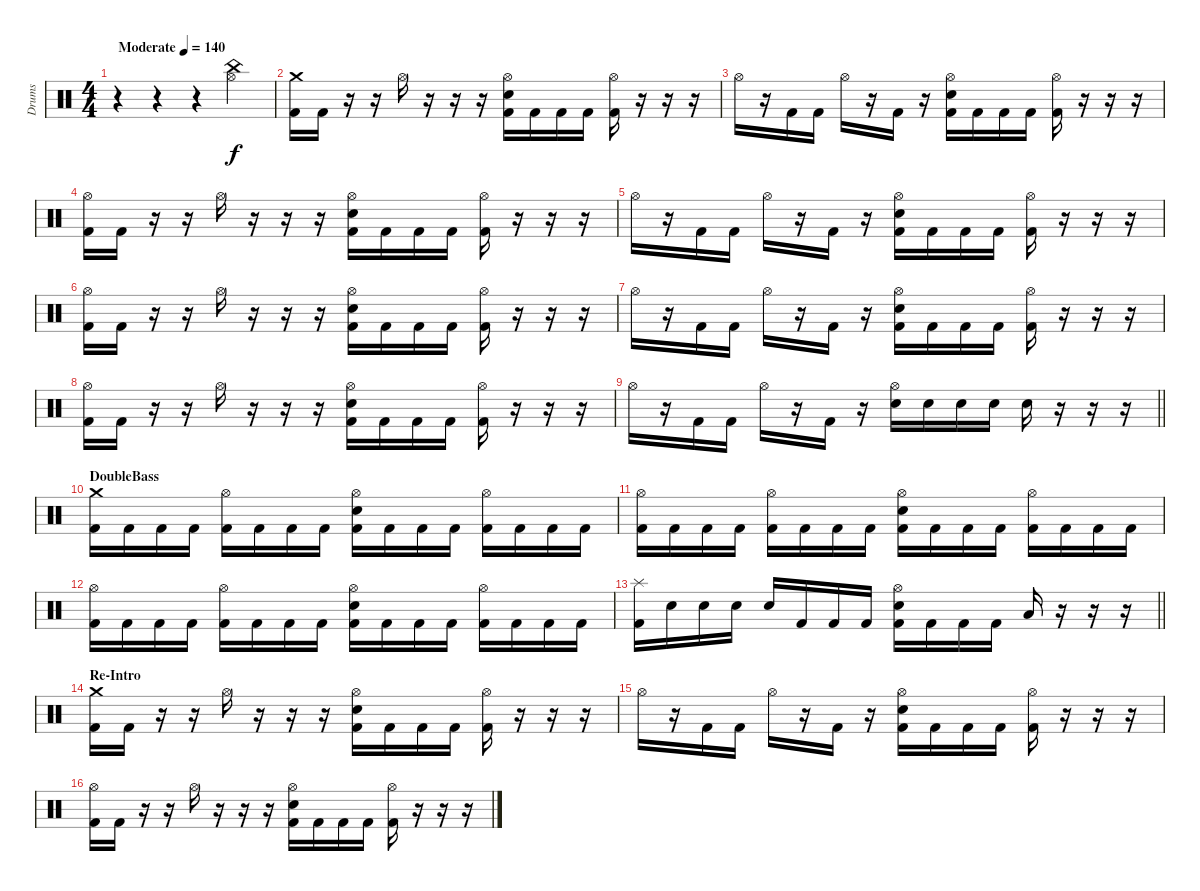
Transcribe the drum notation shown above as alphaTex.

\track ("Drums" "Drums") {instrument percussion}
\staff {score}
\articulation defaults
\ts (4 4)
\tempo (140 "Moderate")
\clef neutral
\ks c
r.4{dy f} r.4 r.4 ("China (hit)" "Hi-Hat (open)").4 |
("Crash medium (hit)" "Kick (hit) 2").16 "Kick (hit) 2".16 r.16 r.16 "Hi-Hat (open)".16 r.16 r.16 r.16 ("Hi-Hat (open)" "Electric Snare (hit)" "Kick (hit) 2").16 "Kick (hit) 2".16 "Kick (hit) 2".16 "Kick (hit) 2".16 ("Hi-Hat (open)" "Kick (hit) 2").16 r.16 r.16 r.16 |
"Hi-Hat (open)".16 r.16 "Kick (hit) 2".16 "Kick (hit) 2".16 "Hi-Hat (open)".16 r.16 "Kick (hit) 2".16 r.16 ("Hi-Hat (open)" "Electric Snare (hit)" "Kick (hit) 2").16 "Kick (hit) 2".16 "Kick (hit) 2".16 "Kick (hit) 2".16 ("Hi-Hat (open)" "Kick (hit) 2").16 r.16 r.16 r.16 |
("Hi-Hat (open)" "Kick (hit) 2").16 "Kick (hit) 2".16 r.16 r.16 "Hi-Hat (open)".16 r.16 r.16 r.16 ("Hi-Hat (open)" "Electric Snare (hit)" "Kick (hit) 2").16 "Kick (hit) 2".16 "Kick (hit) 2".16 "Kick (hit) 2".16 ("Hi-Hat (open)" "Kick (hit) 2").16 r.16 r.16 r.16 |
"Hi-Hat (open)".16 r.16 "Kick (hit) 2".16 "Kick (hit) 2".16 "Hi-Hat (open)".16 r.16 "Kick (hit) 2".16 r.16 ("Hi-Hat (open)" "Electric Snare (hit)" "Kick (hit) 2").16 "Kick (hit) 2".16 "Kick (hit) 2".16 "Kick (hit) 2".16 ("Hi-Hat (open)" "Kick (hit) 2").16 r.16 r.16 r.16 |
("Hi-Hat (open)" "Kick (hit) 2").16 "Kick (hit) 2".16 r.16 r.16 "Hi-Hat (open)".16 r.16 r.16 r.16 ("Hi-Hat (open)" "Electric Snare (hit)" "Kick (hit) 2").16 "Kick (hit) 2".16 "Kick (hit) 2".16 "Kick (hit) 2".16 ("Hi-Hat (open)" "Kick (hit) 2").16 r.16 r.16 r.16 |
"Hi-Hat (open)".16 r.16 "Kick (hit) 2".16 "Kick (hit) 2".16 "Hi-Hat (open)".16 r.16 "Kick (hit) 2".16 r.16 ("Hi-Hat (open)" "Electric Snare (hit)" "Kick (hit) 2").16 "Kick (hit) 2".16 "Kick (hit) 2".16 "Kick (hit) 2".16 ("Hi-Hat (open)" "Kick (hit) 2").16 r.16 r.16 r.16 |
("Hi-Hat (open)" "Kick (hit) 2").16 "Kick (hit) 2".16 r.16 r.16 "Hi-Hat (open)".16 r.16 r.16 r.16 ("Hi-Hat (open)" "Electric Snare (hit)" "Kick (hit) 2").16 "Kick (hit) 2".16 "Kick (hit) 2".16 "Kick (hit) 2".16 ("Hi-Hat (open)" "Kick (hit) 2").16 r.16 r.16 r.16 |
\barLineRight lightlight "Hi-Hat (open)".16
r.16 "Kick (hit) 2".16 "Kick (hit) 2".16 "Hi-Hat (open)".16 r.16 "Kick (hit) 2".16 r.16 ("Hi-Hat (open)" "Electric Snare (hit)").16 "Electric Snare (hit)".16 "Electric Snare (hit)".16 "Electric Snare (hit)".16 "Electric Snare (hit)".16 r.16 r.16 r.16 |
\section ("" "DoubleBass")
("Crash medium (hit)" "Kick (hit) 2").16 "Kick (hit) 2".16 "Kick (hit) 2".16 "Kick (hit) 2".16 ("Hi-Hat (open)" "Kick (hit) 2").16 "Kick (hit) 2".16 "Kick (hit) 2".16 "Kick (hit) 2".16 ("Hi-Hat (open)" "Electric Snare (hit)" "Kick (hit) 2").16 "Kick (hit) 2".16 "Kick (hit) 2".16 "Kick (hit) 2".16 ("Hi-Hat (open)" "Kick (hit) 2").16 "Kick (hit) 2".16 "Kick (hit) 2".16 "Kick (hit) 2".16 |
("Hi-Hat (open)" "Kick (hit) 2").16 "Kick (hit) 2".16 "Kick (hit) 2".16 "Kick (hit) 2".16 ("Hi-Hat (open)" "Kick (hit) 2").16 "Kick (hit) 2".16 "Kick (hit) 2".16 "Kick (hit) 2".16 ("Hi-Hat (open)" "Electric Snare (hit)" "Kick (hit) 2").16 "Kick (hit) 2".16 "Kick (hit) 2".16 "Kick (hit) 2".16 ("Hi-Hat (open)" "Kick (hit) 2").16 "Kick (hit) 2".16 "Kick (hit) 2".16 "Kick (hit) 2".16 |
("Hi-Hat (open)" "Kick (hit) 2").16 "Kick (hit) 2".16 "Kick (hit) 2".16 "Kick (hit) 2".16 ("Hi-Hat (open)" "Kick (hit) 2").16 "Kick (hit) 2".16 "Kick (hit) 2".16 "Kick (hit) 2".16 ("Hi-Hat (open)" "Electric Snare (hit)" "Kick (hit) 2").16 "Kick (hit) 2".16 "Kick (hit) 2".16 "Kick (hit) 2".16 ("Hi-Hat (open)" "Kick (hit) 2").16 "Kick (hit) 2".16 "Kick (hit) 2".16 "Kick (hit) 2".16 |
\barLineRight lightlight
("Splash (hit)" "Kick (hit) 2").16 "Electric Snare (hit)".16 "Electric Snare (hit)".16 "Electric Snare (hit)".16 "Electric Snare (hit)".16 "Kick (hit) 2".16 "Kick (hit) 2".16 "Kick (hit) 2".16 ("Hi-Hat (open)" "Electric Snare (hit)" "Kick (hit) 2").16 "Kick (hit) 2".16 "Kick (hit) 2".16 "Kick (hit) 2".16 "Low Tom (hit)".16 r.16 r.16 r.16 |
\section ("" "Re-Intro")
("Crash medium (hit)" "Kick (hit) 2").16 "Kick (hit) 2".16 r.16 r.16 "Hi-Hat (open)".16 r.16 r.16 r.16 ("Hi-Hat (open)" "Electric Snare (hit)" "Kick (hit) 2").16 "Kick (hit) 2".16 "Kick (hit) 2".16 "Kick (hit) 2".16 ("Hi-Hat (open)" "Kick (hit) 2").16 r.16 r.16 r.16 |
"Hi-Hat (open)".16 r.16 "Kick (hit) 2".16 "Kick (hit) 2".16 "Hi-Hat (open)".16 r.16 "Kick (hit) 2".16 r.16 ("Hi-Hat (open)" "Electric Snare (hit)" "Kick (hit) 2").16 "Kick (hit) 2".16 "Kick (hit) 2".16 "Kick (hit) 2".16 ("Hi-Hat (open)" "Kick (hit) 2").16 r.16 r.16 r.16 |
("Hi-Hat (open)" "Kick (hit) 2").16 "Kick (hit) 2".16 r.16 r.16 "Hi-Hat (open)".16 r.16 r.16 r.16 ("Hi-Hat (open)" "Electric Snare (hit)" "Kick (hit) 2").16 "Kick (hit) 2".16 "Kick (hit) 2".16 "Kick (hit) 2".16 ("Hi-Hat (open)" "Kick (hit) 2").16 r.16 r.16 r.16
